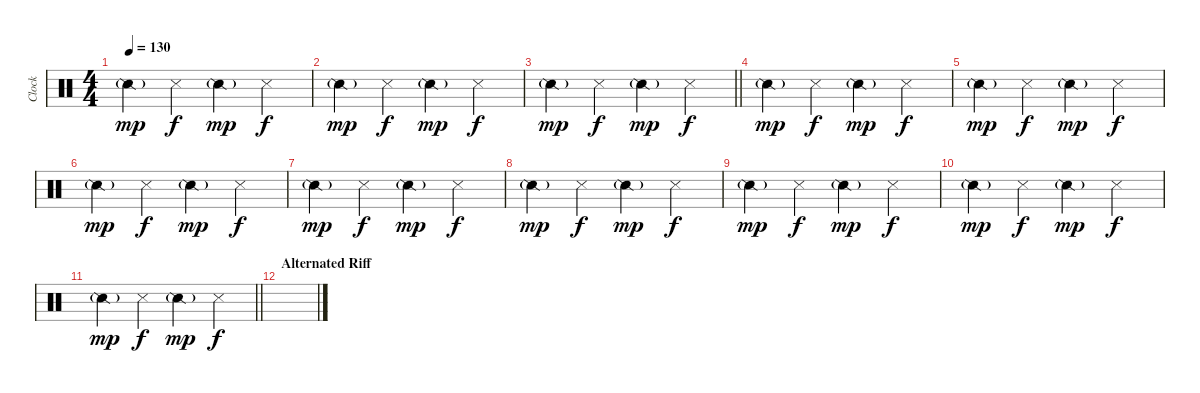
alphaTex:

\track ("Clock" "Clock") {instrument percussion}
\staff {score}
\articulation defaults
\ts (4 4)
\tempo 130
\clef neutral
\ks c "Snare (side stick) 2"{g}.4{dy mp} "Metronome (hit)".4{dy f} "Snare (side stick) 2"{g}.4{dy mp} "Metronome (hit)".4{dy f}
|
"Snare (side stick) 2"{g}.4{dy mp} "Metronome (hit)".4{dy f} "Snare (side stick) 2"{g}.4{dy mp} "Metronome (hit)".4{dy f} |
\barLineRight lightlight "Snare (side stick) 2"{g}.4{dy mp} "Metronome (hit)".4{dy f} "Snare (side stick) 2"{g}.4{dy mp} "Metronome (hit)".4{dy f}
|
"Snare (side stick) 2"{g}.4{dy mp} "Metronome (hit)".4{dy f} "Snare (side stick) 2"{g}.4{dy mp} "Metronome (hit)".4{dy f} |
"Snare (side stick) 2"{g}.4{dy mp} "Metronome (hit)".4{dy f} "Snare (side stick) 2"{g}.4{dy mp} "Metronome (hit)".4{dy f} |
"Snare (side stick) 2"{g}.4{dy mp} "Metronome (hit)".4{dy f} "Snare (side stick) 2"{g}.4{dy mp} "Metronome (hit)".4{dy f} |
"Snare (side stick) 2"{g}.4{dy mp} "Metronome (hit)".4{dy f} "Snare (side stick) 2"{g}.4{dy mp} "Metronome (hit)".4{dy f} |
"Snare (side stick) 2"{g}.4{dy mp} "Metronome (hit)".4{dy f} "Snare (side stick) 2"{g}.4{dy mp} "Metronome (hit)".4{dy f} |
"Snare (side stick) 2"{g}.4{dy mp} "Metronome (hit)".4{dy f} "Snare (side stick) 2"{g}.4{dy mp} "Metronome (hit)".4{dy f} |
"Snare (side stick) 2"{g}.4{dy mp} "Metronome (hit)".4{dy f} "Snare (side stick) 2"{g}.4{dy mp} "Metronome (hit)".4{dy f} |
\barLineRight lightlight "Snare (side stick) 2"{g}.4{dy mp} "Metronome (hit)".4{dy f} "Snare (side stick) 2"{g}.4{dy mp} "Metronome (hit)".4{dy f}
|
\section ("" "Alternated Riff")
